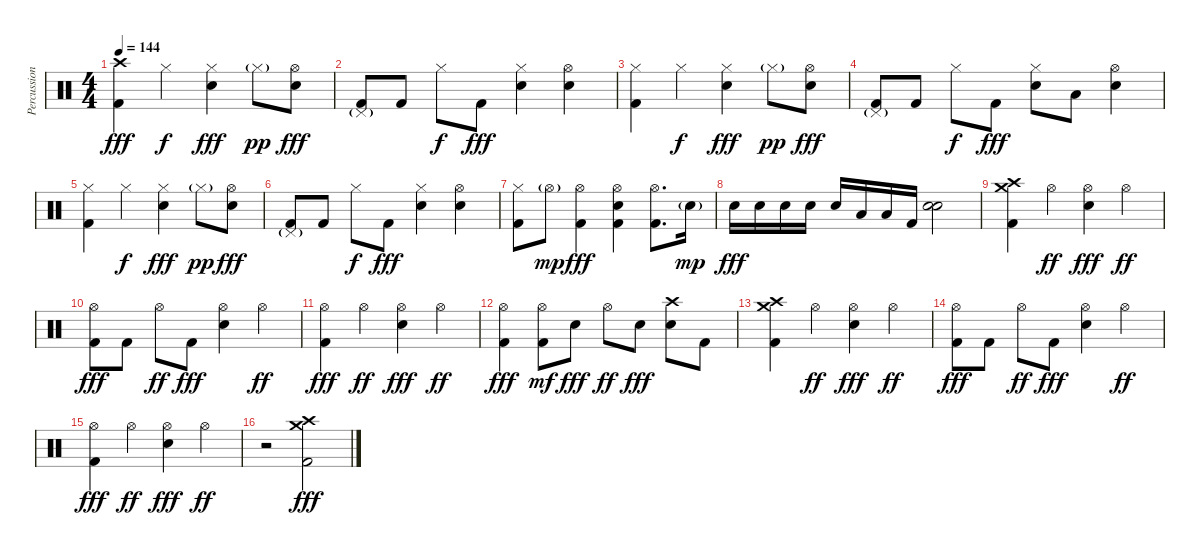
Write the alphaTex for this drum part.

\track ("Percussion" "Percussion") {instrument percussion}
\staff {score}
\articulation defaults
\ts (4 4)
\tempo 144
\clef neutral
\ks c
("Crash high (hit)" "Kick (hit) 2").4{dy fff} "Hi-Hat (closed)".4{dy f} ("Hi-Hat (closed)" "Electric Snare (hit)").4{dy fff} "Hi-Hat (closed)"{g}.8{dy pp} ("Hi-Hat (open)" "Electric Snare (hit)").8{dy fff} |
("Pedal Hi-Hat (hit)"{g} "Kick (hit) 2").8 "Kick (hit) 2".8 "Hi-Hat (closed)".8{dy f} "Kick (hit) 2".8{dy fff} ("Hi-Hat (closed)" "Electric Snare (hit)").4 ("Hi-Hat (open)" "Electric Snare (hit)").4 |
("Hi-Hat (closed)" "Kick (hit) 2").4 "Hi-Hat (closed)".4{dy f} ("Hi-Hat (closed)" "Electric Snare (hit)").4{dy fff} "Hi-Hat (closed)"{g}.8{dy pp} ("Hi-Hat (open)" "Electric Snare (hit)").8{dy fff} |
("Pedal Hi-Hat (hit)"{g} "Kick (hit) 2").8 "Kick (hit) 2".8 "Hi-Hat (closed)".8{dy f} "Kick (hit) 2".8{dy fff} ("Hi-Hat (closed)" "Electric Snare (hit)").8 "Low Tom (hit)".8 ("Hi-Hat (open)" "Electric Snare (hit)").4 |
("Hi-Hat (closed)" "Kick (hit) 2").4 "Hi-Hat (closed)".4{dy f} ("Hi-Hat (closed)" "Electric Snare (hit)").4{dy fff} "Hi-Hat (closed)"{g}.8{dy pp} ("Hi-Hat (open)" "Electric Snare (hit)").8{dy fff} |
("Pedal Hi-Hat (hit)"{g} "Kick (hit) 2").8 "Kick (hit) 2".8 "Hi-Hat (closed)".8{dy f} "Kick (hit) 2".8{dy fff} ("Hi-Hat (closed)" "Electric Snare (hit)").4 ("Hi-Hat (open)" "Electric Snare (hit)").4 |
("Hi-Hat (closed)" "Kick (hit) 2").8 "Hi-Hat (open)"{g}.8{dy mp} ("Hi-Hat (open)" "Kick (hit) 2").4{dy fff} ("Hi-Hat (open)" "Kick (hit) 2" "Electric Snare (hit)").4 ("Hi-Hat (open)" "Kick (hit) 2").8{d} "Electric Snare (hit)"{g}.16{dy mp} |
"Electric Snare (hit)".16{dy fff} "Electric Snare (hit)".16 "Electric Snare (hit)".16 "Electric Snare (hit)".16 "Electric Snare (hit)".16 "Low Tom (hit)".16 "Low Floor Tom (hit)".16 "Kick (hit) 2".16 ("Electric Snare (hit)" "Electric Snare (hit)").2{bd 240} |
("Crash high (hit)" "Crash medium (hit)" "Kick (hit) 2").4 "Hi-Hat (open)".4{dy ff} ("Hi-Hat (open)" "Electric Snare (hit)").4{dy fff} "Hi-Hat (open)".4{dy ff} |
("Hi-Hat (open)" "Kick (hit) 2").8{dy fff} "Kick (hit) 2".8 "Hi-Hat (open)".8{dy ff} "Kick (hit) 2".8{dy fff} ("Hi-Hat (open)" "Electric Snare (hit)").4 "Hi-Hat (open)".4{dy ff} |
("Hi-Hat (open)" "Kick (hit) 2").4{dy fff} "Hi-Hat (open)".4{dy ff} ("Hi-Hat (open)" "Electric Snare (hit)").4{dy fff} "Hi-Hat (open)".4{dy ff} |
("Hi-Hat (open)" "Kick (hit) 2").4{dy fff} ("Hi-Hat (open)" "Kick (hit) 2").8{dy mf} "Electric Snare (hit)".8{dy fff} "Hi-Hat (open)".8{dy ff} "Electric Snare (hit)".8{dy fff} ("Crash high (hit)" "Electric Snare (hit)").8 "Kick (hit) 2".8 |
("Crash high (hit)" "Crash medium (hit)" "Kick (hit) 2").4 "Hi-Hat (open)".4{dy ff} ("Hi-Hat (open)" "Electric Snare (hit)").4{dy fff} "Hi-Hat (open)".4{dy ff} |
("Hi-Hat (open)" "Kick (hit) 2").8{dy fff} "Kick (hit) 2".8 "Hi-Hat (open)".8{dy ff} "Kick (hit) 2".8{dy fff} ("Hi-Hat (open)" "Electric Snare (hit)").4 "Hi-Hat (open)".4{dy ff} |
("Hi-Hat (open)" "Kick (hit) 2").4{dy fff} "Hi-Hat (open)".4{dy ff} ("Hi-Hat (open)" "Electric Snare (hit)").4{dy fff} "Hi-Hat (open)".4{dy ff} |
r.2 ("Crash high (hit)" "Crash medium (hit)" "Kick (hit) 2").2{dy fff}
